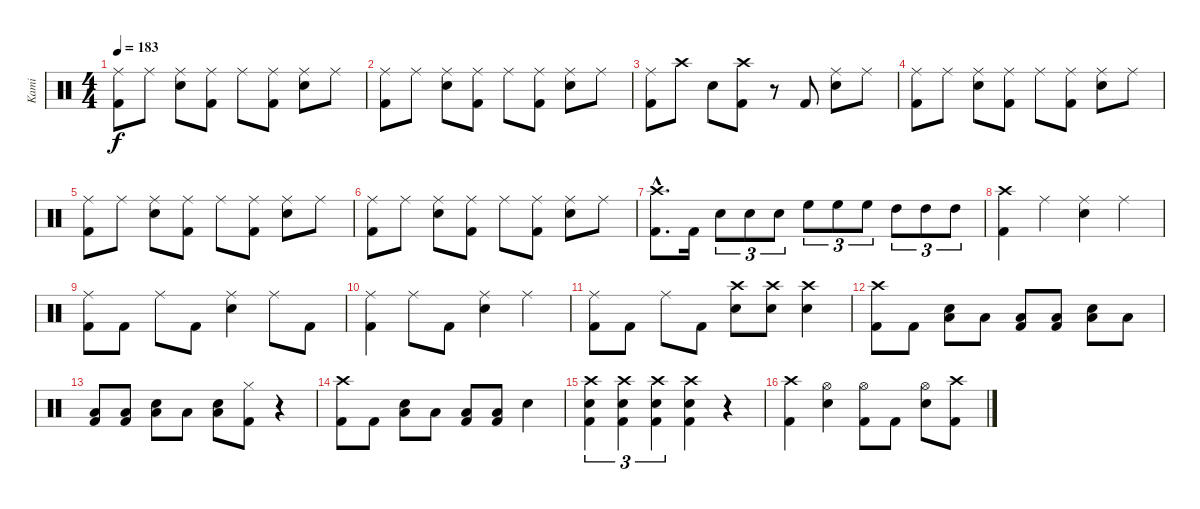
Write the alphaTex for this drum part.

\track ("Kami" "Kami") {instrument percussion}
\staff {score}
\articulation defaults
\ts (4 4)
\tempo 183
\clef neutral
\ks c
("Ride (middle)" "Kick (hit) 2").8{dy f} "Ride (middle)".8 ("Ride (middle)" "Electric Snare (hit)").8 ("Ride (middle)" "Kick (hit) 2").8 "Ride (middle)".8 ("Ride (middle)" "Kick (hit) 2").8 ("Ride (middle)" "Electric Snare (hit)").8 "Ride (middle)".8 |
("Ride (middle)" "Kick (hit) 2").8 "Ride (middle)".8 ("Ride (middle)" "Electric Snare (hit)").8 ("Ride (middle)" "Kick (hit) 2").8 "Ride (middle)".8 ("Ride (middle)" "Kick (hit) 2").8 ("Ride (middle)" "Electric Snare (hit)").8 "Ride (middle)".8 |
("Ride (middle)" "Kick (hit) 2").8 "Crash high (hit)".8 "Electric Snare (hit)".8 ("Crash high (hit)" "Kick (hit) 2").8 r.8 "Kick (hit) 2".8 ("Ride (middle)" "Electric Snare (hit)").8 "Ride (middle)".8 |
("Ride (middle)" "Kick (hit) 2").8 "Ride (middle)".8 ("Ride (middle)" "Electric Snare (hit)").8 ("Ride (middle)" "Kick (hit) 2").8 "Ride (middle)".8 ("Ride (middle)" "Kick (hit) 2").8 ("Ride (middle)" "Electric Snare (hit)").8 "Ride (middle)".8 |
("Ride (middle)" "Kick (hit) 2").8 "Ride (middle)".8 ("Ride (middle)" "Electric Snare (hit)").8 ("Ride (middle)" "Kick (hit) 2").8 "Ride (middle)".8 ("Ride (middle)" "Kick (hit) 2").8 ("Ride (middle)" "Electric Snare (hit)").8 "Ride (middle)".8 |
("Ride (middle)" "Kick (hit) 2").8 "Ride (middle)".8 ("Ride (middle)" "Electric Snare (hit)").8 ("Ride (middle)" "Kick (hit) 2").8 "Ride (middle)".8 ("Ride (middle)" "Kick (hit) 2").8 ("Ride (middle)" "Electric Snare (hit)").8 "Ride (middle)".8 |
("Crash high (hit)"{hac} "Kick (hit) 2"{hac}).8{d} "Kick (hit) 2".16 "Electric Snare (hit)".8{tu (3 2)} "Electric Snare (hit)".8{tu (3 2)} "Electric Snare (hit)".8{tu (3 2)} "High Floor Tom (hit)".8{tu (3 2)} "High Floor Tom (hit)".8{tu (3 2)} "High Floor Tom (hit)".8{tu (3 2)} "High Tom (hit)".8{tu (3 2)} "High Tom (hit)".8{tu (3 2)} "High Tom (hit)".8{tu (3 2)} |
("Crash high (hit)" "Kick (hit) 2").4 "Ride (middle)".4 ("Ride (middle)" "Electric Snare (hit)").4 "Ride (middle)".4 |
("Ride (middle)" "Kick (hit) 2").8 "Kick (hit) 2".8 "Ride (middle)".8 "Kick (hit) 2".8 ("Ride (middle)" "Electric Snare (hit)").4 "Ride (middle)".8 "Kick (hit) 2".8 |
("Ride (middle)" "Kick (hit) 2").4 "Ride (middle)".8 "Kick (hit) 2".8 ("Ride (middle)" "Electric Snare (hit)").4 "Ride (middle)".4 |
("Ride (middle)" "Kick (hit) 2").8 "Kick (hit) 2".8 "Ride (middle)".8 "Kick (hit) 2".8 ("Crash high (hit)" "Electric Snare (hit)").8 ("Crash high (hit)" "Electric Snare (hit)").8 ("Crash high (hit)" "Electric Snare (hit)").4 |
("Crash high (hit)" "Kick (hit) 2").8 "Kick (hit) 2".8 ("Electric Snare (hit)" "Low Tom (hit)").8 "Low Tom (hit)".8 ("Low Tom (hit)" "Kick (hit) 2").8 ("Low Tom (hit)" "Kick (hit) 2").8 ("Electric Snare (hit)" "Low Tom (hit)").8 "Low Tom (hit)".8 |
("Low Tom (hit)" "Kick (hit) 2").8 ("Low Tom (hit)" "Kick (hit) 2").8 ("Electric Snare (hit)" "Low Tom (hit)").8 "Low Tom (hit)".8 ("Electric Snare (hit)" "Low Tom (hit)").8 ("Hi-Hat (closed)" "Kick (hit) 2").8 r.4 |
("Crash high (hit)" "Kick (hit) 2").8 "Kick (hit) 2".8 ("Electric Snare (hit)" "Low Tom (hit)").8 "Low Tom (hit)".8 ("Low Tom (hit)" "Kick (hit) 2").8 ("Low Tom (hit)" "Kick (hit) 2").8 "Electric Snare (hit)".4 |
("Crash high (hit)" "Electric Snare (hit)" "Kick (hit) 2").4{tu (3 2)} ("Crash high (hit)" "Electric Snare (hit)" "Kick (hit) 2").4{tu (3 2)} ("Crash high (hit)" "Electric Snare (hit)" "Kick (hit) 2").4{tu (3 2)} ("Crash high (hit)" "Electric Snare (hit)" "Kick (hit) 2").4 r.4 |
("Crash high (hit)" "Kick (hit) 2").4 ("Hi-Hat (open)" "Electric Snare (hit)").4 ("Hi-Hat (open)" "Kick (hit) 2").8 "Kick (hit) 2".8 ("Hi-Hat (open)" "Electric Snare (hit)").8 ("Crash high (hit)" "Kick (hit) 2").8
